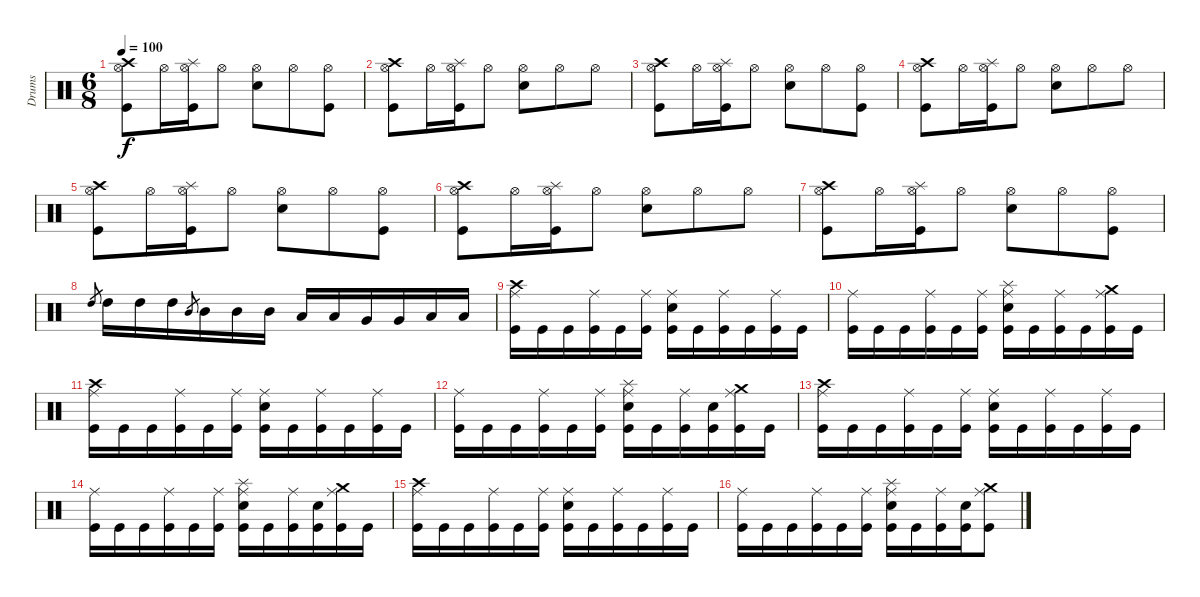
\track ("Drums" "Drums") {instrument percussion}
\staff {score}
\articulation defaults
\ts (6 8)
\tempo 100
\clef neutral
\ks c
("Crash high (hit)" "Hi-Hat (open)" "Kick (hit)").8{dy f} "Hi-Hat (open)".16 ("Splash (hit)" "Hi-Hat (open)" "Kick (hit)").16 "Hi-Hat (open)".8 ("Hi-Hat (open)" "Electric Snare (hit)").8 "Hi-Hat (open)".8 ("Hi-Hat (open)" "Kick (hit)").8 |
("Crash high (hit)" "Hi-Hat (open)" "Kick (hit)").8 "Hi-Hat (open)".16 ("Splash (hit)" "Hi-Hat (open)" "Kick (hit)").16 "Hi-Hat (open)".8 ("Hi-Hat (open)" "Electric Snare (hit)").8 "Hi-Hat (open)".8 "Hi-Hat (open)".8 |
("Crash high (hit)" "Hi-Hat (open)" "Kick (hit)").8 "Hi-Hat (open)".16 ("Splash (hit)" "Hi-Hat (open)" "Kick (hit)").16 "Hi-Hat (open)".8 ("Hi-Hat (open)" "Electric Snare (hit)").8 "Hi-Hat (open)".8 ("Hi-Hat (open)" "Kick (hit)").8 |
("Crash high (hit)" "Hi-Hat (open)" "Kick (hit)").8 "Hi-Hat (open)".16 ("Splash (hit)" "Hi-Hat (open)" "Kick (hit)").16 "Hi-Hat (open)".8 ("Hi-Hat (open)" "Electric Snare (hit)").8 "Hi-Hat (open)".8 "Hi-Hat (open)".8 |
("Crash high (hit)" "Hi-Hat (open)" "Kick (hit)").8 "Hi-Hat (open)".16 ("Splash (hit)" "Hi-Hat (open)" "Kick (hit)").16 "Hi-Hat (open)".8 ("Hi-Hat (open)" "Electric Snare (hit)").8 "Hi-Hat (open)".8 ("Hi-Hat (open)" "Kick (hit)").8 |
("Crash high (hit)" "Hi-Hat (open)" "Kick (hit)").8 "Hi-Hat (open)".16 ("Splash (hit)" "Hi-Hat (open)" "Kick (hit)").16 "Hi-Hat (open)".8 ("Hi-Hat (open)" "Electric Snare (hit)").8 "Hi-Hat (open)".8 "Hi-Hat (open)".8 |
("Crash high (hit)" "Hi-Hat (open)" "Kick (hit)").8 "Hi-Hat (open)".16 ("Splash (hit)" "Hi-Hat (open)" "Kick (hit)").16 "Hi-Hat (open)".8 ("Hi-Hat (open)" "Electric Snare (hit)").8 "Hi-Hat (open)".8 ("Hi-Hat (open)" "Kick (hit)").8 |
"High Tom (hit)".8{gr} "High Tom (hit)".16 "High Tom (hit)".16 "High Tom (hit)".16 "Mid Tom (hit)".8{gr} "Mid Tom (hit)".16 "Mid Tom (hit)".16 "Mid Tom (hit)".16 "Low Tom (hit)".16 "Low Tom (hit)".16 "Very Low Tom (hit)".16 "Very Low Tom (hit)".16 "Low Floor Tom (hit)".16 "Low Floor Tom (hit)".16 |
("Crash high (hit)" "Ride (middle)" "Kick (hit)").16 "Kick (hit)".16 "Kick (hit)".16 ("Ride (middle)" "Kick (hit)").16 "Kick (hit)".16 ("Ride (middle)" "Kick (hit)").16 ("Ride (middle)" "Electric Snare (hit)" "Kick (hit)").16 "Kick (hit)".16 ("Ride (middle)" "Kick (hit)").16 "Kick (hit)".16 ("Ride (middle)" "Kick (hit)").16 "Kick (hit)".16 |
("Ride (middle)" "Kick (hit)").16 "Kick (hit)".16 "Kick (hit)".16 ("Ride (middle)" "Kick (hit)").16 "Kick (hit)".16 ("Ride (middle)" "Kick (hit)").16 ("Splash (hit)" "Ride (middle)" "Electric Snare (hit)" "Kick (hit)").16 "Kick (hit)".16 ("Ride (middle)" "Kick (hit)").16 "Kick (hit)".16 ("Crash medium (hit)" "Ride (middle)" "Kick (hit)").16 "Kick (hit)".16 |
("Crash high (hit)" "Ride (middle)" "Kick (hit)").16 "Kick (hit)".16 "Kick (hit)".16 ("Ride (middle)" "Kick (hit)").16 "Kick (hit)".16 ("Ride (middle)" "Kick (hit)").16 ("Ride (middle)" "Electric Snare (hit)" "Kick (hit)").16 "Kick (hit)".16 ("Ride (middle)" "Kick (hit)").16 "Kick (hit)".16 ("Ride (middle)" "Kick (hit)").16 "Kick (hit)".16 |
("Ride (middle)" "Kick (hit)").16 "Kick (hit)".16 "Kick (hit)".16 ("Ride (middle)" "Kick (hit)").16 "Kick (hit)".16 ("Ride (middle)" "Kick (hit)").16 ("Splash (hit)" "Ride (middle)" "Electric Snare (hit)" "Kick (hit)").16 "Kick (hit)".16 ("Ride (middle)" "Kick (hit)").16 ("Electric Snare (hit)" "Kick (hit)").16 ("Crash medium (hit)" "Ride (middle)" "Kick (hit)").16 "Kick (hit)".16 |
("Crash high (hit)" "Ride (middle)" "Kick (hit)").16 "Kick (hit)".16 "Kick (hit)".16 ("Ride (middle)" "Kick (hit)").16 "Kick (hit)".16 ("Ride (middle)" "Kick (hit)").16 ("Ride (middle)" "Electric Snare (hit)" "Kick (hit)").16 "Kick (hit)".16 ("Ride (middle)" "Kick (hit)").16 "Kick (hit)".16 ("Ride (middle)" "Kick (hit)").16 "Kick (hit)".16 |
("Ride (middle)" "Kick (hit)").16 "Kick (hit)".16 "Kick (hit)".16 ("Ride (middle)" "Kick (hit)").16 "Kick (hit)".16 ("Ride (middle)" "Kick (hit)").16 ("Splash (hit)" "Ride (middle)" "Electric Snare (hit)" "Kick (hit)").16 "Kick (hit)".16 ("Ride (middle)" "Kick (hit)").16 ("Electric Snare (hit)" "Kick (hit)").16 ("Crash medium (hit)" "Ride (middle)" "Kick (hit)").16 "Kick (hit)".16 |
("Crash high (hit)" "Ride (middle)" "Kick (hit)").16 "Kick (hit)".16 "Kick (hit)".16 ("Ride (middle)" "Kick (hit)").16 "Kick (hit)".16 ("Ride (middle)" "Kick (hit)").16 ("Ride (middle)" "Electric Snare (hit)" "Kick (hit)").16 "Kick (hit)".16 ("Ride (middle)" "Kick (hit)").16 "Kick (hit)".16 ("Ride (middle)" "Kick (hit)").16 "Kick (hit)".16 |
("Ride (middle)" "Kick (hit)").16 "Kick (hit)".16 "Kick (hit)".16 ("Ride (middle)" "Kick (hit)").16 "Kick (hit)".16 ("Ride (middle)" "Kick (hit)").16 ("Splash (hit)" "Ride (middle)" "Electric Snare (hit)" "Kick (hit)").16 "Kick (hit)".16 ("Ride (middle)" "Kick (hit)").16 ("Electric Snare (hit)" "Kick (hit)").16 ("Crash medium (hit)" "Ride (middle)" "Kick (hit)").8
